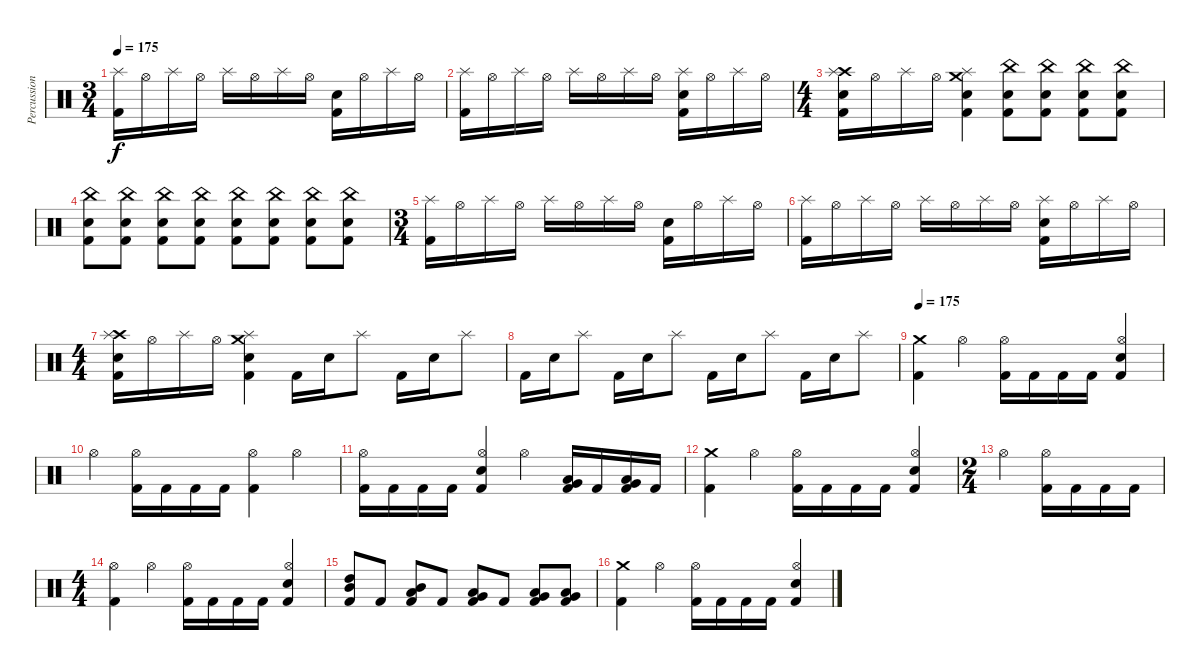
\track ("Percussions" "Percussion") {instrument percussion}
\staff {score}
\articulation defaults
\ts (3 4)
\tempo 175
\clef neutral
\ks c
("Splash (hit)" "Kick (hit) 2").16{dy f} "Hi-Hat (open)".16 "Splash (hit)".16 "Hi-Hat (open)".16 "Splash (hit)".16 "Hi-Hat (open)".16 "Splash (hit)".16 "Hi-Hat (open)".16 ("Electric Snare (hit)" "Kick (hit) 2").16 "Hi-Hat (open)".16 "Splash (hit)".16 "Hi-Hat (open)".16 |
("Splash (hit)" "Kick (hit) 2").16 "Hi-Hat (open)".16 "Splash (hit)".16 "Hi-Hat (open)".16 "Splash (hit)".16 "Hi-Hat (open)".16 "Splash (hit)".16 "Hi-Hat (open)".16 ("Splash (hit)" "Electric Snare (hit)" "Kick (hit) 2").16 "Hi-Hat (open)".16 "Splash (hit)".16 "Hi-Hat (open)".16 |
\ts (4 4)
("Crash high (hit)" "Splash (hit)" "Electric Snare (hit)" "Kick (hit) 2").16 "Hi-Hat (open)".16 "Splash (hit)".16 "Hi-Hat (open)".16 ("Crash medium (hit)" "Splash (hit)" "Electric Snare (hit)" "Kick (hit) 2").4 ("China (hit)" "Electric Snare (hit)" "Kick (hit) 2").8 ("China (hit)" "Electric Snare (hit)" "Kick (hit) 2").8 ("China (hit)" "Electric Snare (hit)" "Kick (hit) 2").8 ("China (hit)" "Electric Snare (hit)" "Kick (hit) 2").8 |
("China (hit)" "Electric Snare (hit)" "Kick (hit) 2").8 ("China (hit)" "Electric Snare (hit)" "Kick (hit) 2").8 ("China (hit)" "Electric Snare (hit)" "Kick (hit) 2").8 ("China (hit)" "Electric Snare (hit)" "Kick (hit) 2").8 ("China (hit)" "Electric Snare (hit)" "Kick (hit) 2").8 ("China (hit)" "Electric Snare (hit)" "Kick (hit) 2").8 ("China (hit)" "Electric Snare (hit)" "Kick (hit) 2").8 ("China (hit)" "Electric Snare (hit)" "Kick (hit) 2").8 |
\ts (3 4)
("Splash (hit)" "Kick (hit) 2").16 "Hi-Hat (open)".16 "Splash (hit)".16 "Hi-Hat (open)".16 "Splash (hit)".16 "Hi-Hat (open)".16 "Splash (hit)".16 "Hi-Hat (open)".16 ("Electric Snare (hit)" "Kick (hit) 2").16 "Hi-Hat (open)".16 "Splash (hit)".16 "Hi-Hat (open)".16 |
("Splash (hit)" "Kick (hit) 2").16 "Hi-Hat (open)".16 "Splash (hit)".16 "Hi-Hat (open)".16 "Splash (hit)".16 "Hi-Hat (open)".16 "Splash (hit)".16 "Hi-Hat (open)".16 ("Splash (hit)" "Electric Snare (hit)" "Kick (hit) 2").16 "Hi-Hat (open)".16 "Splash (hit)".16 "Hi-Hat (open)".16 |
\ts (4 4)
("Crash high (hit)" "Splash (hit)" "Electric Snare (hit)" "Kick (hit) 2").16 "Hi-Hat (open)".16 "Splash (hit)".16 "Hi-Hat (open)".16 ("Crash medium (hit)" "Splash (hit)" "Electric Snare (hit)" "Kick (hit) 2").4 "Kick (hit) 2".16 "Electric Snare (hit)".16 "Splash (hit)".8 "Kick (hit) 2".16 "Electric Snare (hit)".16 "Splash (hit)".8 |
"Kick (hit) 2".16 "Electric Snare (hit)".16 "Splash (hit)".8 "Kick (hit) 2".16 "Electric Snare (hit)".16 "Splash (hit)".8 "Kick (hit) 2".16 "Electric Snare (hit)".16 "Splash (hit)".8 "Kick (hit) 2".16 "Electric Snare (hit)".16 "Splash (hit)".8 |
\tempo 175
("Crash medium (hit)" "Kick (hit) 2").4 "Hi-Hat (open)".4 ("Hi-Hat (open)" "Kick (hit) 2").16 "Kick (hit) 2".16 "Kick (hit) 2".16 "Kick (hit) 2".16 ("Hi-Hat (open)" "Electric Snare (hit)" "Kick (hit) 2").4 |
"Hi-Hat (open)".4 ("Hi-Hat (open)" "Kick (hit) 2").16 "Kick (hit) 2".16 "Kick (hit) 2".16 "Kick (hit) 2".16 ("Hi-Hat (open)" "Kick (hit) 2").4 "Hi-Hat (open)".4 |
("Hi-Hat (open)" "Kick (hit) 2").16 "Kick (hit) 2".16 "Kick (hit) 2".16 "Kick (hit) 2".16 ("Hi-Hat (open)" "Electric Snare (hit)" "Kick (hit) 2").4 "Hi-Hat (open)".4 ("Low Tom (hit)" "Very Low Tom (hit)" "Kick (hit) 2").16 "Kick (hit) 2".16 ("Very Low Tom (hit)" "Low Floor Tom (hit)" "Kick (hit) 2").16 "Kick (hit) 2".16 |
("Crash medium (hit)" "Kick (hit) 2").4 "Hi-Hat (open)".4 ("Hi-Hat (open)" "Kick (hit) 2").16 "Kick (hit) 2".16 "Kick (hit) 2".16 "Kick (hit) 2".16 ("Hi-Hat (open)" "Electric Snare (hit)" "Kick (hit) 2").4 |
\ts (2 4)
"Hi-Hat (open)".4 ("Hi-Hat (open)" "Kick (hit) 2").16 "Kick (hit) 2".16 "Kick (hit) 2".16 "Kick (hit) 2".16 |
\ts (4 4)
("Hi-Hat (open)" "Kick (hit) 2").4 "Hi-Hat (open)".4 ("Hi-Hat (open)" "Kick (hit) 2").16 "Kick (hit) 2".16 "Kick (hit) 2".16 "Kick (hit) 2".16 ("Hi-Hat (open)" "Electric Snare (hit)" "Kick (hit) 2").4 |
("High Tom (hit)" "Mid Tom (hit)" "Kick (hit) 2").8 "Kick (hit) 2".8 ("Mid Tom (hit)" "Low Tom (hit)" "Kick (hit) 2").8 "Kick (hit) 2".8 ("Low Tom (hit)" "Very Low Tom (hit)" "Kick (hit) 2").8 "Kick (hit) 2".8 ("Very Low Tom (hit)" "Low Floor Tom (hit)" "Kick (hit) 2").8 ("Very Low Tom (hit)" "Low Floor Tom (hit)" "Kick (hit) 2").8 |
("Crash medium (hit)" "Kick (hit) 2").4 "Hi-Hat (open)".4 ("Hi-Hat (open)" "Kick (hit) 2").16 "Kick (hit) 2".16 "Kick (hit) 2".16 "Kick (hit) 2".16 ("Hi-Hat (open)" "Electric Snare (hit)" "Kick (hit) 2").4
